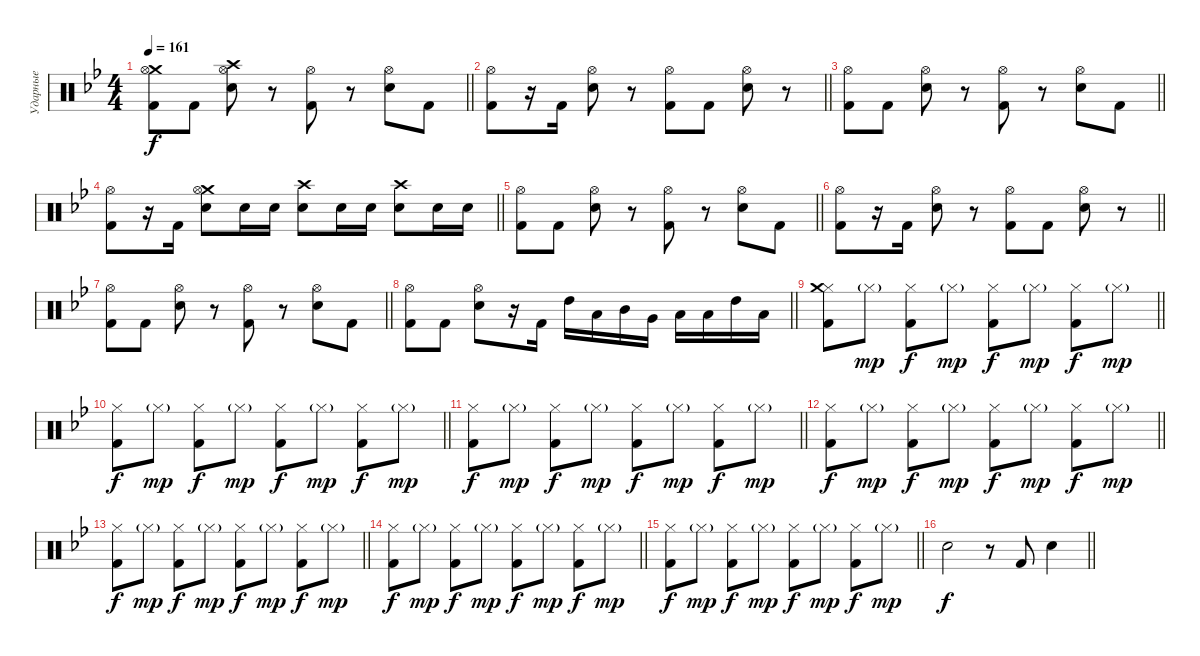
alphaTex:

\track ("Ударные" "Ударные") {instrument percussion}
\staff {score}
\articulation defaults
\ts (4 4)
\tempo 161
\clef neutral
\barLineRight lightlight
\ks gminor
("Crash medium (hit)" "Kick (hit) 2" "Hi-Hat (open)").8{dy f} "Kick (hit) 2".8 ("Crash high (hit)" "Electric Snare (hit)" "Hi-Hat (open)").8 r.8 ("Kick (hit) 2" "Hi-Hat (open)").8 r.8 ("Electric Snare (hit)" "Hi-Hat (open)").8 "Kick (hit) 2".8 |
\barLineRight lightlight
("Kick (hit) 2" "Hi-Hat (open)").8 r.16 "Kick (hit) 2".16 ("Electric Snare (hit)" "Hi-Hat (open)").8 r.8 ("Kick (hit) 2" "Hi-Hat (open)").8 "Kick (hit) 2".8 ("Electric Snare (hit)" "Hi-Hat (open)").8 r.8 |
\barLineRight lightlight
("Kick (hit) 2" "Hi-Hat (open)").8 "Kick (hit) 2".8 ("Electric Snare (hit)" "Hi-Hat (open)").8 r.8 ("Kick (hit) 2" "Hi-Hat (open)").8 r.8 ("Electric Snare (hit)" "Hi-Hat (open)").8 "Kick (hit) 2".8 |
\barLineRight lightlight
("Kick (hit) 2" "Hi-Hat (open)").8 r.16 "Kick (hit) 2".16 ("Crash medium (hit)" "Electric Snare (hit)" "Hi-Hat (open)").8 "Electric Snare (hit)".16 "Electric Snare (hit)".16 ("Crash high (hit)" "Electric Snare (hit)").8 "Electric Snare (hit)".16 "Electric Snare (hit)".16 ("Crash high (hit)" "Electric Snare (hit)").8 "Electric Snare (hit)".16 "Electric Snare (hit)".16 |
\barLineRight lightlight
("Kick (hit) 2" "Hi-Hat (open)").8 "Kick (hit) 2".8 ("Electric Snare (hit)" "Hi-Hat (open)").8 r.8 ("Kick (hit) 2" "Hi-Hat (open)").8 r.8 ("Electric Snare (hit)" "Hi-Hat (open)").8 "Kick (hit) 2".8 |
\barLineRight lightlight
("Kick (hit) 2" "Hi-Hat (open)").8 r.16 "Kick (hit) 2".16 ("Electric Snare (hit)" "Hi-Hat (open)").8 r.8 ("Kick (hit) 2" "Hi-Hat (open)").8 "Kick (hit) 2".8 ("Electric Snare (hit)" "Hi-Hat (open)").8 r.8 |
\barLineRight lightlight
("Kick (hit) 2" "Hi-Hat (open)").8 "Kick (hit) 2".8 ("Electric Snare (hit)" "Hi-Hat (open)").8 r.8 ("Kick (hit) 2" "Hi-Hat (open)").8 r.8 ("Electric Snare (hit)" "Hi-Hat (open)").8 "Kick (hit) 2".8 |
\barLineRight lightlight
("Kick (hit) 2" "Hi-Hat (open)").8 "Kick (hit) 2".8 ("Electric Snare (hit)" "Hi-Hat (open)").8 r.16 "Kick (hit) 2".16 "High Tom (hit)".16 "Low Floor Tom (hit)".16 "Mid Tom (hit)".16 "Very Low Tom (hit)".16 "Low Tom (hit)".16 "Low Floor Tom (hit)".16 "High Tom (hit)".16 "Low Floor Tom (hit)".16 |
\section ("" "")
\barLineRight lightlight
("Hi-Hat (closed)" "Kick (hit) 2" "Crash medium (hit)").8 "Hi-Hat (closed)"{g}.8{dy mp} ("Hi-Hat (closed)" "Kick (hit) 2").8{dy f} "Hi-Hat (closed)"{g}.8{dy mp} ("Hi-Hat (closed)" "Kick (hit) 2").8{dy f} "Hi-Hat (closed)"{g}.8{dy mp} ("Hi-Hat (closed)" "Kick (hit) 2").8{dy f} "Hi-Hat (closed)"{g}.8{dy mp} |
\barLineRight lightlight
("Hi-Hat (closed)" "Kick (hit) 2").8{dy f} "Hi-Hat (closed)"{g}.8{dy mp} ("Hi-Hat (closed)" "Kick (hit) 2").8{dy f} "Hi-Hat (closed)"{g}.8{dy mp} ("Hi-Hat (closed)" "Kick (hit) 2").8{dy f} "Hi-Hat (closed)"{g}.8{dy mp} ("Hi-Hat (closed)" "Kick (hit) 2").8{dy f} "Hi-Hat (closed)"{g}.8{dy mp} |
\barLineRight lightlight
("Hi-Hat (closed)" "Kick (hit) 2").8{dy f} "Hi-Hat (closed)"{g}.8{dy mp} ("Hi-Hat (closed)" "Kick (hit) 2").8{dy f} "Hi-Hat (closed)"{g}.8{dy mp} ("Hi-Hat (closed)" "Kick (hit) 2").8{dy f} "Hi-Hat (closed)"{g}.8{dy mp} ("Hi-Hat (closed)" "Kick (hit) 2").8{dy f} "Hi-Hat (closed)"{g}.8{dy mp} |
\barLineRight lightlight
("Hi-Hat (closed)" "Kick (hit) 2").8{dy f} "Hi-Hat (closed)"{g}.8{dy mp} ("Hi-Hat (closed)" "Kick (hit) 2").8{dy f} "Hi-Hat (closed)"{g}.8{dy mp} ("Hi-Hat (closed)" "Kick (hit) 2").8{dy f} "Hi-Hat (closed)"{g}.8{dy mp} ("Hi-Hat (closed)" "Kick (hit) 2").8{dy f} "Hi-Hat (closed)"{g}.8{dy mp} |
\barLineRight lightlight
("Hi-Hat (closed)" "Kick (hit) 2").8{dy f} "Hi-Hat (closed)"{g}.8{dy mp} ("Hi-Hat (closed)" "Kick (hit) 2").8{dy f} "Hi-Hat (closed)"{g}.8{dy mp} ("Hi-Hat (closed)" "Kick (hit) 2").8{dy f} "Hi-Hat (closed)"{g}.8{dy mp} ("Hi-Hat (closed)" "Kick (hit) 2").8{dy f} "Hi-Hat (closed)"{g}.8{dy mp} |
\barLineRight lightlight
("Hi-Hat (closed)" "Kick (hit) 2").8{dy f} "Hi-Hat (closed)"{g}.8{dy mp} ("Hi-Hat (closed)" "Kick (hit) 2").8{dy f} "Hi-Hat (closed)"{g}.8{dy mp} ("Hi-Hat (closed)" "Kick (hit) 2").8{dy f} "Hi-Hat (closed)"{g}.8{dy mp} ("Hi-Hat (closed)" "Kick (hit) 2").8{dy f} "Hi-Hat (closed)"{g}.8{dy mp} |
\barLineRight lightlight
("Hi-Hat (closed)" "Kick (hit) 2").8{dy f} "Hi-Hat (closed)"{g}.8{dy mp} ("Hi-Hat (closed)" "Kick (hit) 2").8{dy f} "Hi-Hat (closed)"{g}.8{dy mp} ("Hi-Hat (closed)" "Kick (hit) 2").8{dy f} "Hi-Hat (closed)"{g}.8{dy mp} ("Hi-Hat (closed)" "Kick (hit) 2").8{dy f} "Hi-Hat (closed)"{g}.8{dy mp} |
\barLineRight lightlight "Electric Snare (hit)".2{dy f}
r.8 "Kick (hit) 2".8 "Electric Snare (hit)".4
